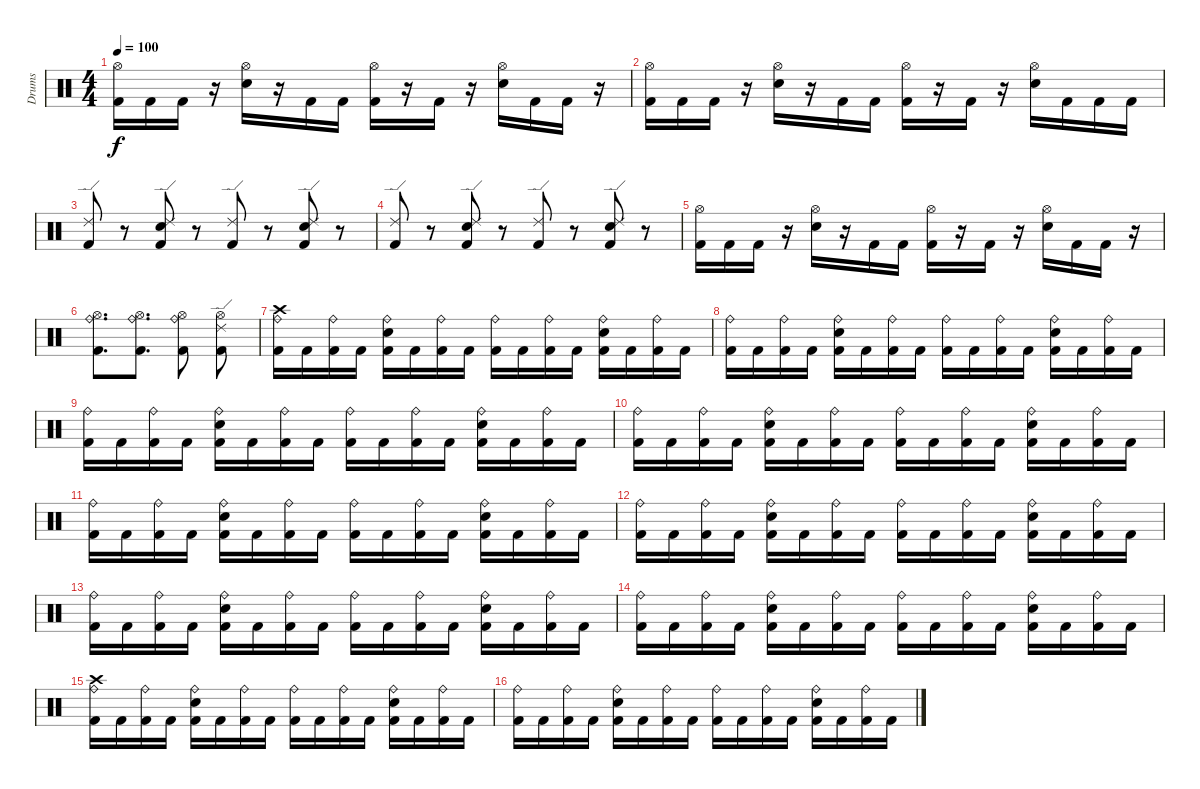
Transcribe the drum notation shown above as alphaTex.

\track ("Drums" "Drums") {instrument percussion}
\staff {score}
\articulation defaults
\ts (4 4)
\tempo 100
\clef neutral
\ks c
("Hi-Hat (open)" "Kick (hit) 2").16{dy f} "Kick (hit) 2".16 "Kick (hit) 2".16 r.16 ("Hi-Hat (open)" "Snare (hit) 2").16 r.16 "Kick (hit) 2".16 "Kick (hit) 2".16 ("Hi-Hat (open)" "Kick (hit) 2").16 r.16 "Kick (hit) 2".16 r.16 ("Hi-Hat (open)" "Snare (hit) 2").16 "Kick (hit) 2".16 "Kick (hit) 2".16 r.16 |
("Hi-Hat (open)" "Kick (hit) 2").16 "Kick (hit) 2".16 "Kick (hit) 2".16 r.16 ("Hi-Hat (open)" "Snare (hit) 2").16 r.16 "Kick (hit) 2".16 "Kick (hit) 2".16 ("Hi-Hat (open)" "Kick (hit) 2").16 r.16 "Kick (hit) 2".16 r.16 ("Hi-Hat (open)" "Snare (hit) 2").16 "Kick (hit) 2".16 "Kick (hit) 2".16 "Kick (hit) 2".16 |
("Ride (edge) 2" "Kick (hit) 2").8 r.8 ("Ride (edge) 2" "Snare (hit) 2" "Kick (hit) 2").8 r.8 ("Ride (edge) 2" "Kick (hit) 2").8 r.8 ("Ride (edge) 2" "Snare (hit) 2" "Kick (hit) 2").8 r.8 |
("Ride (edge) 2" "Kick (hit) 2").8 r.8 ("Ride (edge) 2" "Snare (hit) 2" "Kick (hit) 2").8 r.8 ("Ride (edge) 2" "Kick (hit) 2").8 r.8 ("Ride (edge) 2" "Snare (hit) 2" "Kick (hit) 2").8 r.8 |
("Hi-Hat (open)" "Kick (hit) 2").16 "Kick (hit) 2".16 "Kick (hit) 2".16 r.16 ("Hi-Hat (open)" "Snare (hit) 2").16 r.16 "Kick (hit) 2".16 "Kick (hit) 2".16 ("Hi-Hat (open)" "Kick (hit) 2").16 r.16 "Kick (hit) 2".16 r.16 ("Hi-Hat (open)" "Snare (hit) 2").16 "Kick (hit) 2".16 "Kick (hit) 2".16 r.16 |
("Ride (bell)" "Hi-Hat (open)" "Kick (hit) 2").8{d} ("Ride (bell)" "Hi-Hat (open)" "Kick (hit) 2").8{d} ("Ride (bell)" "Hi-Hat (open)" "Kick (hit) 2").8 ("Ride (edge) 2" "Hi-Hat (open)" "Kick (hit) 2").8 |
("Crash high (hit)" "Ride (bell)" "Kick (hit) 2").16 "Kick (hit) 2".16 ("Ride (bell)" "Kick (hit) 2").16 "Kick (hit) 2".16 ("Ride (bell)" "Snare (hit) 2" "Kick (hit) 2").16 "Kick (hit) 2".16 ("Ride (bell)" "Kick (hit) 2").16 "Kick (hit) 2".16 ("Ride (bell)" "Kick (hit) 2").16 "Kick (hit) 2".16 ("Ride (bell)" "Kick (hit) 2").16 "Kick (hit) 2".16 ("Ride (bell)" "Snare (hit) 2" "Kick (hit) 2").16 "Kick (hit) 2".16 ("Ride (bell)" "Kick (hit) 2").16 "Kick (hit) 2".16 |
("Ride (bell)" "Kick (hit) 2").16 "Kick (hit) 2".16 ("Ride (bell)" "Kick (hit) 2").16 "Kick (hit) 2".16 ("Ride (bell)" "Snare (hit) 2" "Kick (hit) 2").16 "Kick (hit) 2".16 ("Ride (bell)" "Kick (hit) 2").16 "Kick (hit) 2".16 ("Ride (bell)" "Kick (hit) 2").16 "Kick (hit) 2".16 ("Ride (bell)" "Kick (hit) 2").16 "Kick (hit) 2".16 ("Ride (bell)" "Snare (hit) 2" "Kick (hit) 2").16 "Kick (hit) 2".16 ("Ride (bell)" "Kick (hit) 2").16 "Kick (hit) 2".16 |
("Ride (bell)" "Kick (hit) 2").16 "Kick (hit) 2".16 ("Ride (bell)" "Kick (hit) 2").16 "Kick (hit) 2".16 ("Ride (bell)" "Snare (hit) 2" "Kick (hit) 2").16 "Kick (hit) 2".16 ("Ride (bell)" "Kick (hit) 2").16 "Kick (hit) 2".16 ("Ride (bell)" "Kick (hit) 2").16 "Kick (hit) 2".16 ("Ride (bell)" "Kick (hit) 2").16 "Kick (hit) 2".16 ("Ride (bell)" "Snare (hit) 2" "Kick (hit) 2").16 "Kick (hit) 2".16 ("Ride (bell)" "Kick (hit) 2").16 "Kick (hit) 2".16 |
("Ride (bell)" "Kick (hit) 2").16 "Kick (hit) 2".16 ("Ride (bell)" "Kick (hit) 2").16 "Kick (hit) 2".16 ("Ride (bell)" "Snare (hit) 2" "Kick (hit) 2").16 "Kick (hit) 2".16 ("Ride (bell)" "Kick (hit) 2").16 "Kick (hit) 2".16 ("Ride (bell)" "Kick (hit) 2").16 "Kick (hit) 2".16 ("Ride (bell)" "Kick (hit) 2").16 "Kick (hit) 2".16 ("Ride (bell)" "Snare (hit) 2" "Kick (hit) 2").16 "Kick (hit) 2".16 ("Ride (bell)" "Kick (hit) 2").16 "Kick (hit) 2".16 |
("Ride (bell)" "Kick (hit) 2").16 "Kick (hit) 2".16 ("Ride (bell)" "Kick (hit) 2").16 "Kick (hit) 2".16 ("Ride (bell)" "Snare (hit) 2" "Kick (hit) 2").16 "Kick (hit) 2".16 ("Ride (bell)" "Kick (hit) 2").16 "Kick (hit) 2".16 ("Ride (bell)" "Kick (hit) 2").16 "Kick (hit) 2".16 ("Ride (bell)" "Kick (hit) 2").16 "Kick (hit) 2".16 ("Ride (bell)" "Snare (hit) 2" "Kick (hit) 2").16 "Kick (hit) 2".16 ("Ride (bell)" "Kick (hit) 2").16 "Kick (hit) 2".16 |
("Ride (bell)" "Kick (hit) 2").16 "Kick (hit) 2".16 ("Ride (bell)" "Kick (hit) 2").16 "Kick (hit) 2".16 ("Ride (bell)" "Snare (hit) 2" "Kick (hit) 2").16 "Kick (hit) 2".16 ("Ride (bell)" "Kick (hit) 2").16 "Kick (hit) 2".16 ("Ride (bell)" "Kick (hit) 2").16 "Kick (hit) 2".16 ("Ride (bell)" "Kick (hit) 2").16 "Kick (hit) 2".16 ("Ride (bell)" "Snare (hit) 2" "Kick (hit) 2").16 "Kick (hit) 2".16 ("Ride (bell)" "Kick (hit) 2").16 "Kick (hit) 2".16 |
("Ride (bell)" "Kick (hit) 2").16 "Kick (hit) 2".16 ("Ride (bell)" "Kick (hit) 2").16 "Kick (hit) 2".16 ("Ride (bell)" "Snare (hit) 2" "Kick (hit) 2").16 "Kick (hit) 2".16 ("Ride (bell)" "Kick (hit) 2").16 "Kick (hit) 2".16 ("Ride (bell)" "Kick (hit) 2").16 "Kick (hit) 2".16 ("Ride (bell)" "Kick (hit) 2").16 "Kick (hit) 2".16 ("Ride (bell)" "Snare (hit) 2" "Kick (hit) 2").16 "Kick (hit) 2".16 ("Ride (bell)" "Kick (hit) 2").16 "Kick (hit) 2".16 |
("Ride (bell)" "Kick (hit) 2").16 "Kick (hit) 2".16 ("Ride (bell)" "Kick (hit) 2").16 "Kick (hit) 2".16 ("Ride (bell)" "Snare (hit) 2" "Kick (hit) 2").16 "Kick (hit) 2".16 ("Ride (bell)" "Kick (hit) 2").16 "Kick (hit) 2".16 ("Ride (bell)" "Kick (hit) 2").16 "Kick (hit) 2".16 ("Ride (bell)" "Kick (hit) 2").16 "Kick (hit) 2".16 ("Ride (bell)" "Snare (hit) 2" "Kick (hit) 2").16 "Kick (hit) 2".16 ("Ride (bell)" "Kick (hit) 2").16 "Kick (hit) 2".16 |
("Crash high (hit)" "Ride (bell)" "Kick (hit) 2").16 "Kick (hit) 2".16 ("Ride (bell)" "Kick (hit) 2").16 "Kick (hit) 2".16 ("Ride (bell)" "Snare (hit) 2" "Kick (hit) 2").16 "Kick (hit) 2".16 ("Ride (bell)" "Kick (hit) 2").16 "Kick (hit) 2".16 ("Ride (bell)" "Kick (hit) 2").16 "Kick (hit) 2".16 ("Ride (bell)" "Kick (hit) 2").16 "Kick (hit) 2".16 ("Ride (bell)" "Snare (hit) 2" "Kick (hit) 2").16 "Kick (hit) 2".16 ("Ride (bell)" "Kick (hit) 2").16 "Kick (hit) 2".16 |
("Ride (bell)" "Kick (hit) 2").16 "Kick (hit) 2".16 ("Ride (bell)" "Kick (hit) 2").16 "Kick (hit) 2".16 ("Ride (bell)" "Snare (hit) 2" "Kick (hit) 2").16 "Kick (hit) 2".16 ("Ride (bell)" "Kick (hit) 2").16 "Kick (hit) 2".16 ("Ride (bell)" "Kick (hit) 2").16 "Kick (hit) 2".16 ("Ride (bell)" "Kick (hit) 2").16 "Kick (hit) 2".16 ("Ride (bell)" "Snare (hit) 2" "Kick (hit) 2").16 "Kick (hit) 2".16 ("Ride (bell)" "Kick (hit) 2").16 "Kick (hit) 2".16
